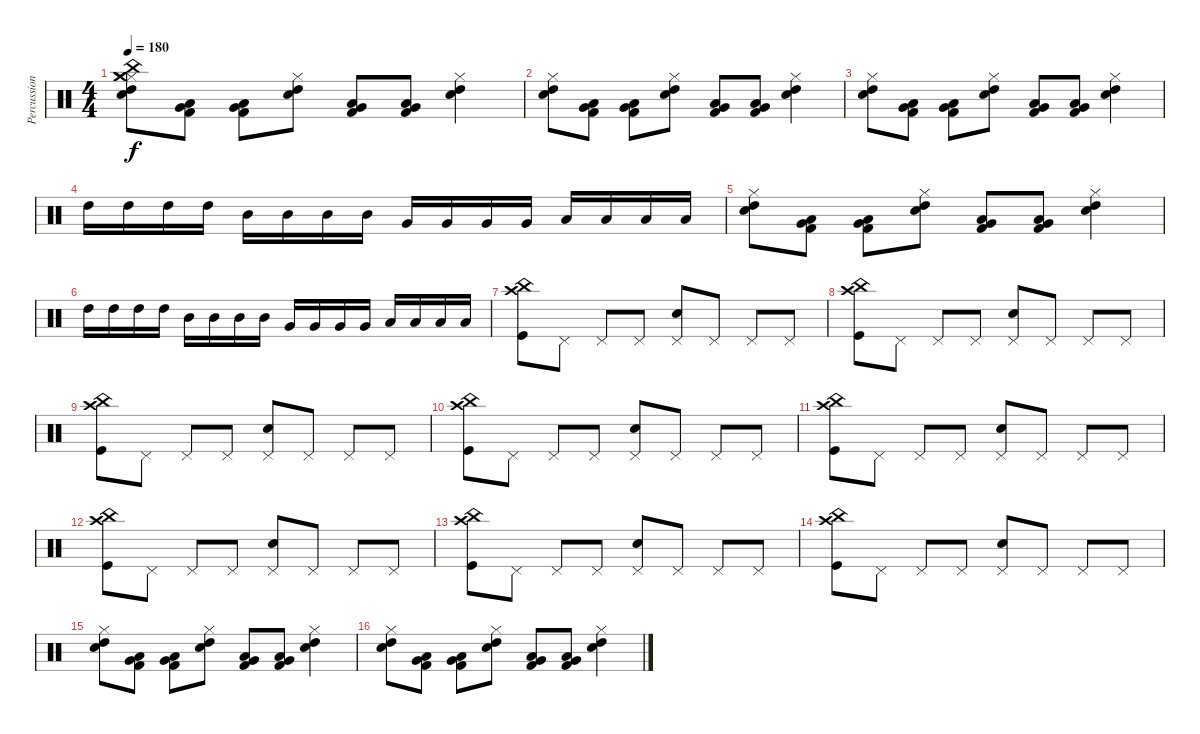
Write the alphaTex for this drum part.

\track ("Percussion" "Percussion") {instrument percussion}
\staff {score}
\articulation defaults
\ts (4 4)
\tempo 180
\clef neutral
\ks c
("High Tom (hit)" "Snare (hit) 2" "Hi-Hat (closed)" "China (hit)" "Crash medium (hit)" "Crash medium (hit)").8{dy f} ("Kick (hit) 2" "Very Low Tom (hit)" "Low Tom (hit)").8 ("Kick (hit) 2" "Very Low Tom (hit)" "Low Tom (hit)").8 ("High Tom (hit)" "Snare (hit) 2" "Hi-Hat (closed)").8 ("Kick (hit) 2" "Very Low Tom (hit)" "Low Tom (hit)").8 ("Kick (hit) 2" "Very Low Tom (hit)" "Low Tom (hit)").8 ("High Tom (hit)" "Snare (hit) 2" "Hi-Hat (closed)").4 |
("High Tom (hit)" "Snare (hit) 2" "Hi-Hat (closed)").8 ("Kick (hit) 2" "Very Low Tom (hit)" "Low Tom (hit)").8 ("Kick (hit) 2" "Very Low Tom (hit)" "Low Tom (hit)").8 ("High Tom (hit)" "Snare (hit) 2" "Hi-Hat (closed)").8 ("Kick (hit) 2" "Very Low Tom (hit)" "Low Tom (hit)").8 ("Kick (hit) 2" "Very Low Tom (hit)" "Low Tom (hit)").8 ("High Tom (hit)" "Snare (hit) 2" "Hi-Hat (closed)").4 |
("High Tom (hit)" "Snare (hit) 2" "Hi-Hat (closed)").8 ("Kick (hit) 2" "Very Low Tom (hit)" "Low Tom (hit)").8 ("Kick (hit) 2" "Very Low Tom (hit)" "Low Tom (hit)").8 ("High Tom (hit)" "Snare (hit) 2" "Hi-Hat (closed)").8 ("Kick (hit) 2" "Very Low Tom (hit)" "Low Tom (hit)").8 ("Kick (hit) 2" "Very Low Tom (hit)" "Low Tom (hit)").8 ("High Tom (hit)" "Snare (hit) 2" "Hi-Hat (closed)").4 |
"High Tom (hit)".16 "High Tom (hit)".16 "High Tom (hit)".16 "High Tom (hit)".16 "Mid Tom (hit)".16 "Mid Tom (hit)".16 "Mid Tom (hit)".16 "Mid Tom (hit)".16 "Very Low Tom (hit)".16 "Very Low Tom (hit)".16 "Very Low Tom (hit)".16 "Very Low Tom (hit)".16 "Low Floor Tom (hit)".16 "Low Floor Tom (hit)".16 "Low Floor Tom (hit)".16 "Low Floor Tom (hit)".16 |
("High Tom (hit)" "Snare (hit) 2" "Hi-Hat (closed)").8 ("Kick (hit) 2" "Very Low Tom (hit)" "Low Tom (hit)").8 ("Kick (hit) 2" "Very Low Tom (hit)" "Low Tom (hit)").8 ("High Tom (hit)" "Snare (hit) 2" "Hi-Hat (closed)").8 ("Kick (hit) 2" "Very Low Tom (hit)" "Low Tom (hit)").8 ("Kick (hit) 2" "Very Low Tom (hit)" "Low Tom (hit)").8 ("High Tom (hit)" "Snare (hit) 2" "Hi-Hat (closed)").4 |
"High Tom (hit)".16 "High Tom (hit)".16 "High Tom (hit)".16 "High Tom (hit)".16 "Mid Tom (hit)".16 "Mid Tom (hit)".16 "Mid Tom (hit)".16 "Mid Tom (hit)".16 "Very Low Tom (hit)".16 "Very Low Tom (hit)".16 "Very Low Tom (hit)".16 "Very Low Tom (hit)".16 "Low Floor Tom (hit)".16 "Low Floor Tom (hit)".16 "Low Floor Tom (hit)".16 "Low Floor Tom (hit)".16 |
("Crash high (hit)" "Kick (hit)" "China (hit)").8 "Pedal Hi-Hat (hit)".8 "Pedal Hi-Hat (hit)".8 "Pedal Hi-Hat (hit)".8 ("Pedal Hi-Hat (hit)" "Electric Snare (hit)").8 "Pedal Hi-Hat (hit)".8 "Pedal Hi-Hat (hit)".8 "Pedal Hi-Hat (hit)".8 |
("Crash high (hit)" "Kick (hit)" "China (hit)").8 "Pedal Hi-Hat (hit)".8 "Pedal Hi-Hat (hit)".8 "Pedal Hi-Hat (hit)".8 ("Pedal Hi-Hat (hit)" "Electric Snare (hit)").8 "Pedal Hi-Hat (hit)".8 "Pedal Hi-Hat (hit)".8 "Pedal Hi-Hat (hit)".8 |
("Crash high (hit)" "Kick (hit)" "China (hit)").8 "Pedal Hi-Hat (hit)".8 "Pedal Hi-Hat (hit)".8 "Pedal Hi-Hat (hit)".8 ("Pedal Hi-Hat (hit)" "Electric Snare (hit)").8 "Pedal Hi-Hat (hit)".8 "Pedal Hi-Hat (hit)".8 "Pedal Hi-Hat (hit)".8 |
("Crash high (hit)" "Kick (hit)" "China (hit)").8 "Pedal Hi-Hat (hit)".8 "Pedal Hi-Hat (hit)".8 "Pedal Hi-Hat (hit)".8 ("Pedal Hi-Hat (hit)" "Electric Snare (hit)").8 "Pedal Hi-Hat (hit)".8 "Pedal Hi-Hat (hit)".8 "Pedal Hi-Hat (hit)".8 |
("Crash high (hit)" "Kick (hit)" "China (hit)").8 "Pedal Hi-Hat (hit)".8 "Pedal Hi-Hat (hit)".8 "Pedal Hi-Hat (hit)".8 ("Pedal Hi-Hat (hit)" "Electric Snare (hit)").8 "Pedal Hi-Hat (hit)".8 "Pedal Hi-Hat (hit)".8 "Pedal Hi-Hat (hit)".8 |
("Crash high (hit)" "Kick (hit)" "China (hit)").8 "Pedal Hi-Hat (hit)".8 "Pedal Hi-Hat (hit)".8 "Pedal Hi-Hat (hit)".8 ("Pedal Hi-Hat (hit)" "Electric Snare (hit)").8 "Pedal Hi-Hat (hit)".8 "Pedal Hi-Hat (hit)".8 "Pedal Hi-Hat (hit)".8 |
("Crash high (hit)" "Kick (hit)" "China (hit)").8 "Pedal Hi-Hat (hit)".8 "Pedal Hi-Hat (hit)".8 "Pedal Hi-Hat (hit)".8 ("Pedal Hi-Hat (hit)" "Electric Snare (hit)").8 "Pedal Hi-Hat (hit)".8 "Pedal Hi-Hat (hit)".8 "Pedal Hi-Hat (hit)".8 |
("Crash high (hit)" "Kick (hit)" "China (hit)").8 "Pedal Hi-Hat (hit)".8 "Pedal Hi-Hat (hit)".8 "Pedal Hi-Hat (hit)".8 ("Pedal Hi-Hat (hit)" "Electric Snare (hit)").8 "Pedal Hi-Hat (hit)".8 "Pedal Hi-Hat (hit)".8 "Pedal Hi-Hat (hit)".8 |
("High Tom (hit)" "Snare (hit) 2" "Hi-Hat (closed)").8 ("Kick (hit) 2" "Very Low Tom (hit)" "Low Tom (hit)").8 ("Kick (hit) 2" "Very Low Tom (hit)" "Low Tom (hit)").8 ("High Tom (hit)" "Snare (hit) 2" "Hi-Hat (closed)").8 ("Kick (hit) 2" "Very Low Tom (hit)" "Low Tom (hit)").8 ("Kick (hit) 2" "Very Low Tom (hit)" "Low Tom (hit)").8 ("High Tom (hit)" "Snare (hit) 2" "Hi-Hat (closed)").4 |
("High Tom (hit)" "Snare (hit) 2" "Hi-Hat (closed)").8 ("Kick (hit) 2" "Very Low Tom (hit)" "Low Tom (hit)").8 ("Kick (hit) 2" "Very Low Tom (hit)" "Low Tom (hit)").8 ("High Tom (hit)" "Snare (hit) 2" "Hi-Hat (closed)").8 ("Kick (hit) 2" "Very Low Tom (hit)" "Low Tom (hit)").8 ("Kick (hit) 2" "Very Low Tom (hit)" "Low Tom (hit)").8 ("High Tom (hit)" "Snare (hit) 2" "Hi-Hat (closed)").4
